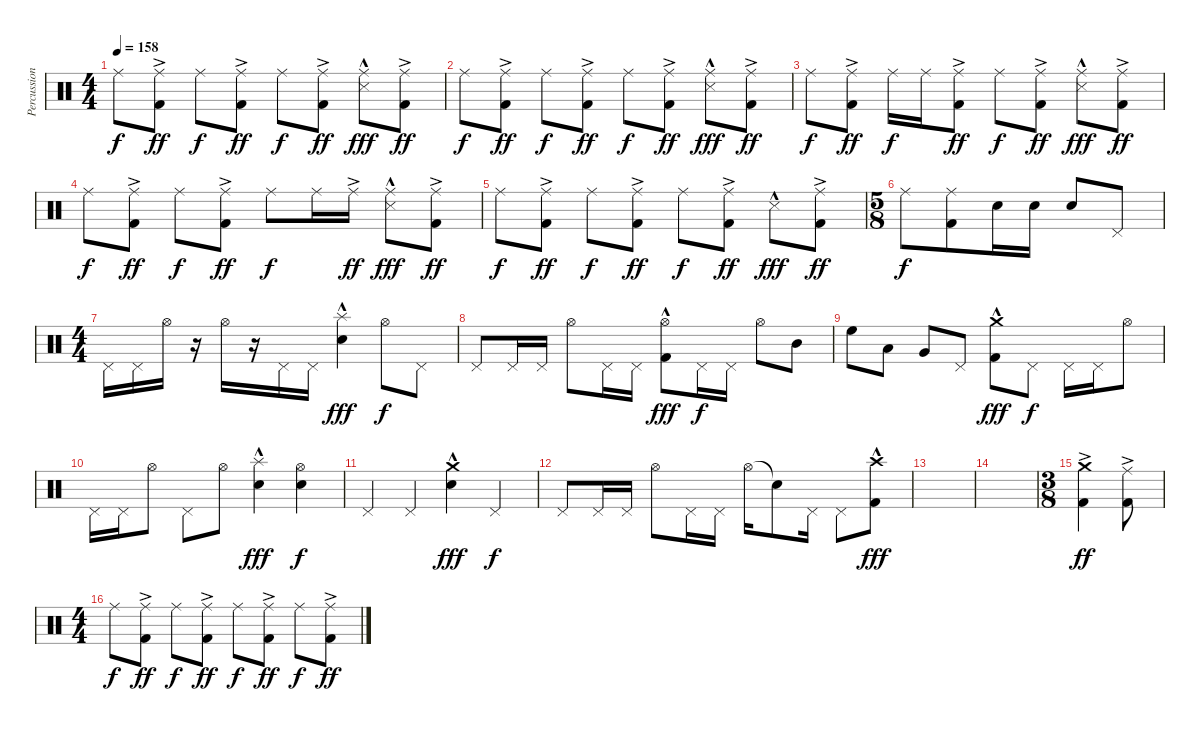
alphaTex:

\track ("Percussion" "Percussion") {instrument percussion}
\staff {score}
\articulation defaults
\ts (4 4)
\tempo 158
\clef neutral
\ks c "Ride (middle)".8{dy f}
("Ride (middle)"{ac} "Kick (hit) 2").8{dy ff} "Ride (middle)".8{dy f} ("Ride (middle)"{ac} "Kick (hit) 2").8{dy ff} "Ride (middle)".8{dy f} ("Ride (middle)"{ac} "Kick (hit) 2").8{dy ff} ("Ride (middle)" "Snare (side stick) 3"{hac}).8{dy fff} ("Ride (middle)"{ac} "Kick (hit) 2").8{dy ff} |
"Ride (middle)".8{dy f} ("Ride (middle)"{ac} "Kick (hit) 2").8{dy ff} "Ride (middle)".8{dy f} ("Ride (middle)"{ac} "Kick (hit) 2").8{dy ff} "Ride (middle)".8{dy f} ("Ride (middle)"{ac} "Kick (hit) 2").8{dy ff} ("Ride (middle)" "Snare (side stick) 3"{hac}).8{dy fff} ("Ride (middle)"{ac} "Kick (hit) 2").8{dy ff} |
"Ride (middle)".8{dy f} ("Ride (middle)"{ac} "Kick (hit) 2").8{dy ff} "Ride (middle)".16{dy f} "Ride (middle)".16 ("Ride (middle)"{ac} "Kick (hit) 2").8{dy ff} "Ride (middle)".8{dy f} ("Ride (middle)"{ac} "Kick (hit) 2").8{dy ff} ("Ride (middle)" "Snare (side stick) 3"{hac}).8{dy fff} ("Ride (middle)"{ac} "Kick (hit) 2").8{dy ff} |
"Ride (middle)".8{dy f} ("Ride (middle)"{ac} "Kick (hit) 2").8{dy ff} "Ride (middle)".8{dy f} ("Ride (middle)"{ac} "Kick (hit) 2").8{dy ff} "Ride (middle)".8{dy f} "Ride (middle)".16 "Ride (middle)"{ac}.16{dy ff} ("Ride (middle)" "Snare (side stick) 3"{hac}).8{dy fff} ("Ride (middle)"{ac} "Kick (hit) 2").8{dy ff} |
"Ride (middle)".8{dy f} ("Ride (middle)"{ac} "Kick (hit) 2").8{dy ff} "Ride (middle)".8{dy f} ("Ride (middle)"{ac} "Kick (hit) 2").8{dy ff} "Ride (middle)".8{dy f} ("Ride (middle)"{ac} "Kick (hit) 2").8{dy ff} "Snare (side stick) 3"{hac}.8{dy fff} ("Ride (middle)"{ac} "Kick (hit) 2").8{dy ff} |
\ts (5 8)
"Ride (middle)".8{dy f} ("Ride (middle)" "Kick (hit) 2").8 "Electric Snare (hit)".16 "Electric Snare (hit)".16 "Electric Snare (hit)".8 "Pedal Hi-Hat (hit)".8 |
\ts (4 4)
"Pedal Hi-Hat (hit)".16 "Pedal Hi-Hat (hit)".16 "Hi-Hat (open)".16 r.16 "Hi-Hat (open)".16 r.16 "Pedal Hi-Hat (hit)".16 "Pedal Hi-Hat (hit)".16 ("Splash (hit)" "Electric Snare (hit)"{hac}).4{dy fff} "Hi-Hat (open)".8{dy f} "Pedal Hi-Hat (hit)".8 |
"Pedal Hi-Hat (hit)".8 "Pedal Hi-Hat (hit)".16 "Pedal Hi-Hat (hit)".16 "Hi-Hat (open)".8 "Pedal Hi-Hat (hit)".16 "Pedal Hi-Hat (hit)".16 ("Hi-Hat (open)" "Kick (hit) 2"{hac}).8{dy fff} "Pedal Hi-Hat (hit)".16{dy f} "Pedal Hi-Hat (hit)".16 "Hi-Hat (open)".8 "Mid Tom (hit)".8 |
"High Floor Tom (hit)".8 "Low Tom (hit)".8 "Very Low Tom (hit)".8 "Pedal Hi-Hat (hit)".8 ("Crash medium (hit)" "Kick (hit) 2"{hac}).8{dy fff} "Pedal Hi-Hat (hit)".8{dy f} "Pedal Hi-Hat (hit)".16 "Pedal Hi-Hat (hit)".16 "Hi-Hat (open)".8 |
"Pedal Hi-Hat (hit)".16 "Pedal Hi-Hat (hit)".16 "Hi-Hat (open)".8 "Pedal Hi-Hat (hit)".8 "Hi-Hat (open)".8 ("Splash (hit)" "Electric Snare (hit)"{hac}).4{dy fff} ("Hi-Hat (open)" "Electric Snare (hit)").4{dy f} |
"Pedal Hi-Hat (hit)".4 "Pedal Hi-Hat (hit)".4 ("Crash medium (hit)" "Electric Snare (hit)"{hac}).4{dy fff} "Pedal Hi-Hat (hit)".4{dy f} |
"Pedal Hi-Hat (hit)".8 "Pedal Hi-Hat (hit)".16 "Pedal Hi-Hat (hit)".16 "Hi-Hat (open)".8 "Pedal Hi-Hat (hit)".16 "Pedal Hi-Hat (hit)".16 "Hi-Hat (open)".16 "Snare (hit)"{t}.8 "Pedal Hi-Hat (hit)".16 "Pedal Hi-Hat (hit)".8 ("Crash high (hit)" "Kick (hit) 2"{hac}).8{dy fff} |
|
|
\ts (3 8)
("Crash medium (hit)" "Kick (hit) 2"{ac}).4{dy ff} ("Ride (middle)"{ac} "Kick (hit) 2").8 |
\ts (4 4)
"Ride (middle)".8{dy f} ("Ride (middle)"{ac} "Kick (hit) 2").8{dy ff} "Ride (middle)".8{dy f} ("Ride (middle)"{ac} "Kick (hit) 2").8{dy ff} "Ride (middle)".8{dy f} ("Ride (middle)"{ac} "Kick (hit) 2").8{dy ff} "Ride (middle)".8{dy f} ("Ride (middle)"{ac} "Kick (hit) 2").8{dy ff}
